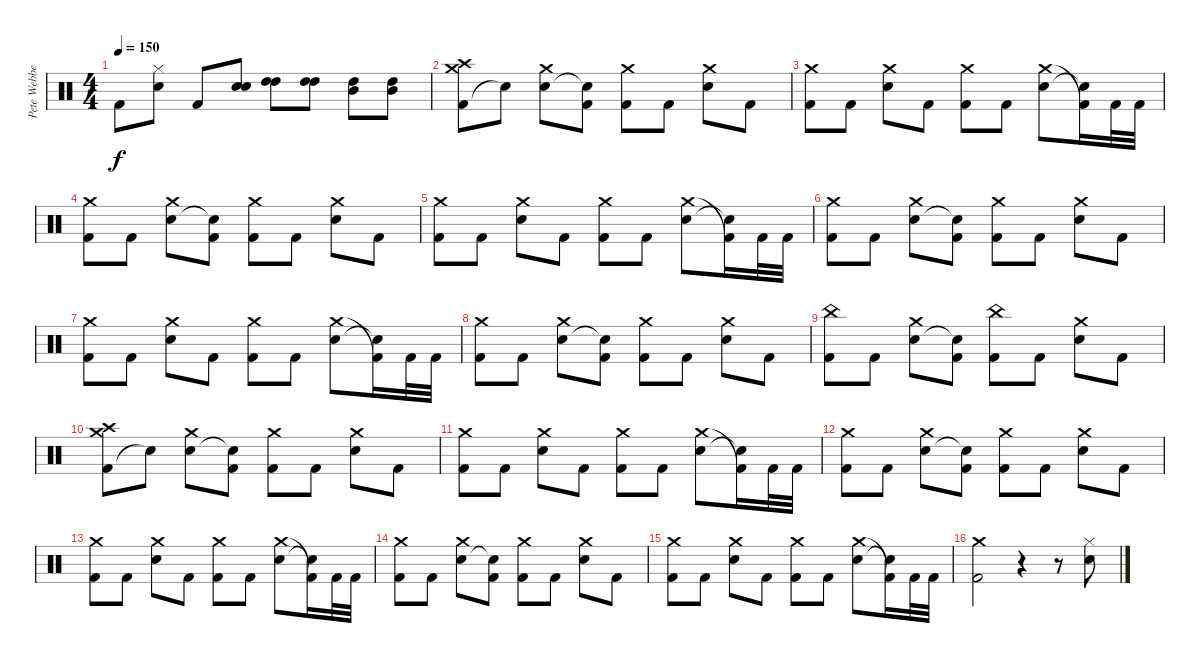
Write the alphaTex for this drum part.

\track ("Pete Webber" "Pete Webbe") {instrument percussion}
\staff {score}
\articulation defaults
\ts (4 4)
\tempo 150
\clef neutral
\ks c "Kick (hit) 2".8{dy f}
("Hi-Hat (closed)" "Electric Snare (hit)").8 "Kick (hit) 2".8 ("Electric Snare (hit)" "Electric Snare (hit)").8 ("High Tom (hit)" "High Tom (hit)").8 ("High Tom (hit)" "High Tom (hit)").8 ("High Tom (hit)" "Mid Tom (hit)").8 ("High Tom (hit)" "Mid Tom (hit)").8 |
("Kick (hit) 2" "Crash high (hit)" "Crash medium (hit)").8 "Snare (hit)"{t}.8 ("Electric Snare (hit)" "Crash medium (hit)").8 ("Snare (hit)"{t} "Kick (hit) 2").8 ("Kick (hit) 2" "Crash medium (hit)").8 "Kick (hit) 2".8 ("Electric Snare (hit)" "Crash medium (hit)").8 "Kick (hit) 2".8 |
("Kick (hit) 2" "Crash medium (hit)").8 "Kick (hit) 2".8 ("Electric Snare (hit)" "Crash medium (hit)").8 "Kick (hit) 2".8 ("Kick (hit) 2" "Crash medium (hit)").8 "Kick (hit) 2".8 ("Electric Snare (hit)" "Crash medium (hit)").8 ("Snare (hit)"{t} "Kick (hit) 2"{t}).16 "Kick (hit) 2".32 "Kick (hit) 2".32 |
("Kick (hit) 2" "Crash medium (hit)").8 "Kick (hit) 2".8 ("Electric Snare (hit)" "Crash medium (hit)").8 ("Snare (hit)"{t} "Kick (hit) 2").8 ("Kick (hit) 2" "Crash medium (hit)").8 "Kick (hit) 2".8 ("Electric Snare (hit)" "Crash medium (hit)").8 "Kick (hit) 2".8 |
("Kick (hit) 2" "Crash medium (hit)").8 "Kick (hit) 2".8 ("Electric Snare (hit)" "Crash medium (hit)").8 "Kick (hit) 2".8 ("Kick (hit) 2" "Crash medium (hit)").8 "Kick (hit) 2".8 ("Electric Snare (hit)" "Crash medium (hit)").8 ("Snare (hit)"{t} "Kick (hit) 2"{t}).16 "Kick (hit) 2".32 "Kick (hit) 2".32 |
("Kick (hit) 2" "Crash medium (hit)").8 "Kick (hit) 2".8 ("Electric Snare (hit)" "Crash medium (hit)").8 ("Snare (hit)"{t} "Kick (hit) 2").8 ("Kick (hit) 2" "Crash medium (hit)").8 "Kick (hit) 2".8 ("Electric Snare (hit)" "Crash medium (hit)").8 "Kick (hit) 2".8 |
("Kick (hit) 2" "Crash medium (hit)").8 "Kick (hit) 2".8 ("Electric Snare (hit)" "Crash medium (hit)").8 "Kick (hit) 2".8 ("Kick (hit) 2" "Crash medium (hit)").8 "Kick (hit) 2".8 ("Electric Snare (hit)" "Crash medium (hit)").8 ("Snare (hit)"{t} "Kick (hit) 2"{t}).16 "Kick (hit) 2".32 "Kick (hit) 2".32 |
("Kick (hit) 2" "Crash medium (hit)").8 "Kick (hit) 2".8 ("Electric Snare (hit)" "Crash medium (hit)").8 ("Snare (hit)"{t} "Kick (hit) 2").8 ("Kick (hit) 2" "Crash medium (hit)").8 "Kick (hit) 2".8 ("Electric Snare (hit)" "Crash medium (hit)").8 "Kick (hit) 2".8 |
("Kick (hit) 2" "China (hit)").8 "Kick (hit) 2".8 ("Electric Snare (hit)" "Crash medium (hit)").8 ("Snare (hit)"{t} "Kick (hit) 2").8 ("Kick (hit) 2" "China (hit)").8 "Kick (hit) 2".8 ("Electric Snare (hit)" "Crash medium (hit)").8 "Kick (hit) 2".8 |
("Kick (hit) 2" "Crash high (hit)" "Crash medium (hit)").8 "Snare (hit)"{t}.8 ("Electric Snare (hit)" "Crash medium (hit)").8 ("Snare (hit)"{t} "Kick (hit) 2").8 ("Kick (hit) 2" "Crash medium (hit)").8 "Kick (hit) 2".8 ("Electric Snare (hit)" "Crash medium (hit)").8 "Kick (hit) 2".8 |
("Kick (hit) 2" "Crash medium (hit)").8 "Kick (hit) 2".8 ("Electric Snare (hit)" "Crash medium (hit)").8 "Kick (hit) 2".8 ("Kick (hit) 2" "Crash medium (hit)").8 "Kick (hit) 2".8 ("Electric Snare (hit)" "Crash medium (hit)").8 ("Snare (hit)"{t} "Kick (hit) 2"{t}).16 "Kick (hit) 2".32 "Kick (hit) 2".32 |
("Kick (hit) 2" "Crash medium (hit)").8 "Kick (hit) 2".8 ("Electric Snare (hit)" "Crash medium (hit)").8 ("Snare (hit)"{t} "Kick (hit) 2").8 ("Kick (hit) 2" "Crash medium (hit)").8 "Kick (hit) 2".8 ("Electric Snare (hit)" "Crash medium (hit)").8 "Kick (hit) 2".8 |
("Kick (hit) 2" "Crash medium (hit)").8 "Kick (hit) 2".8 ("Electric Snare (hit)" "Crash medium (hit)").8 "Kick (hit) 2".8 ("Kick (hit) 2" "Crash medium (hit)").8 "Kick (hit) 2".8 ("Electric Snare (hit)" "Crash medium (hit)").8 ("Snare (hit)"{t} "Kick (hit) 2"{t}).16 "Kick (hit) 2".32 "Kick (hit) 2".32 |
("Kick (hit) 2" "Crash medium (hit)").8 "Kick (hit) 2".8 ("Electric Snare (hit)" "Crash medium (hit)").8 ("Snare (hit)"{t} "Kick (hit) 2").8 ("Kick (hit) 2" "Crash medium (hit)").8 "Kick (hit) 2".8 ("Electric Snare (hit)" "Crash medium (hit)").8 "Kick (hit) 2".8 |
("Kick (hit) 2" "Crash medium (hit)").8 "Kick (hit) 2".8 ("Electric Snare (hit)" "Crash medium (hit)").8 "Kick (hit) 2".8 ("Kick (hit) 2" "Crash medium (hit)").8 "Kick (hit) 2".8 ("Electric Snare (hit)" "Crash medium (hit)").8 ("Snare (hit)"{t} "Kick (hit) 2"{t}).16 "Kick (hit) 2".32 "Kick (hit) 2".32 |
("Kick (hit) 2" "Crash medium (hit)").2 r.4 r.8 ("Hi-Hat (closed)" "Electric Snare (hit)").8
